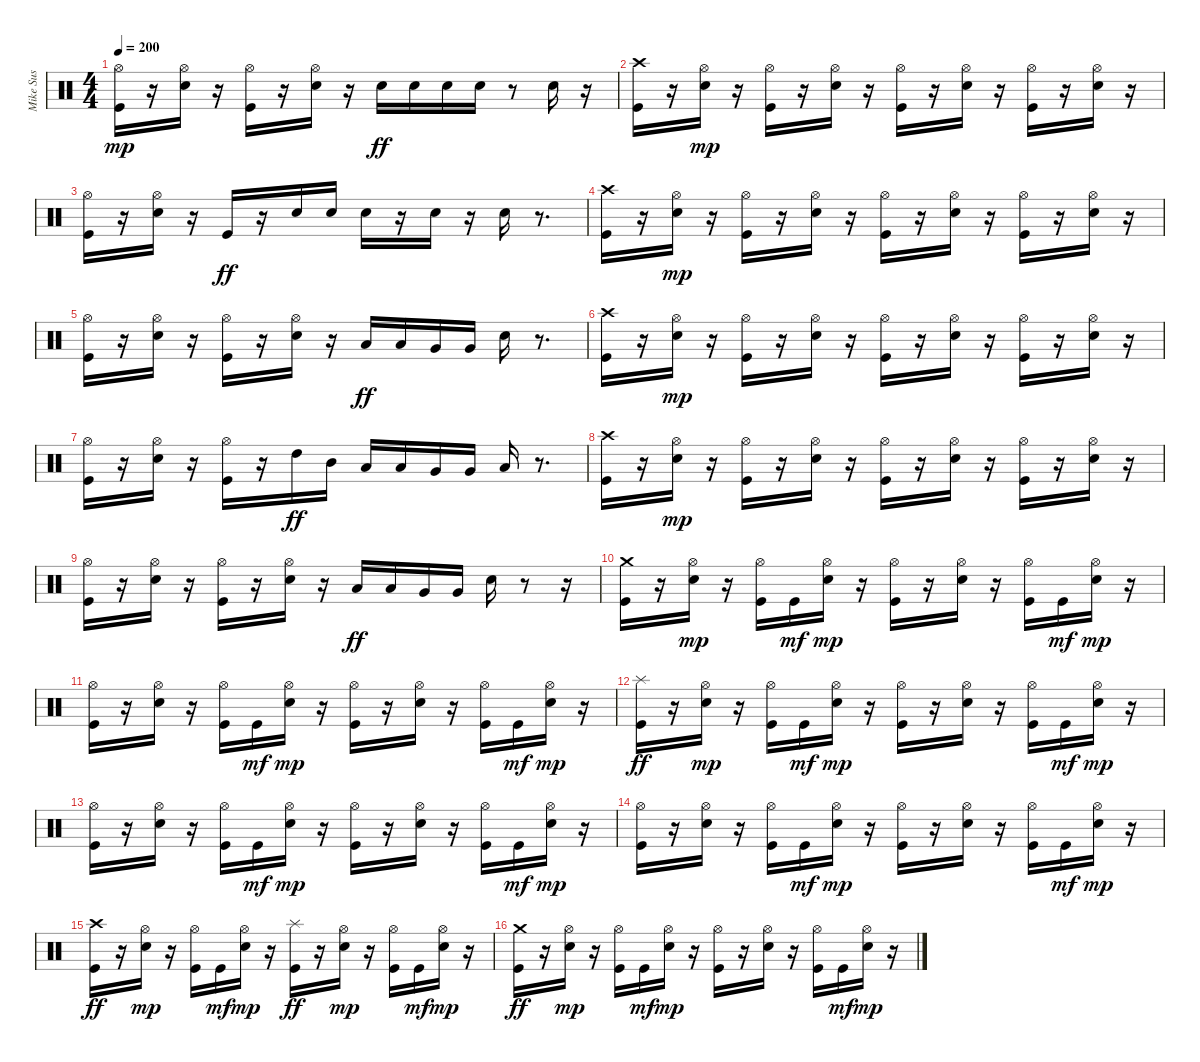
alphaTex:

\track ("Mike Sus" "Mike Sus") {instrument percussion}
\staff {score}
\articulation defaults
\ts (4 4)
\tempo 200
\clef neutral
\ks c
("Kick (hit)" "Hi-Hat (open)").16{dy mp} r.16 ("Snare (hit) 2" "Hi-Hat (open)").16 r.16 ("Kick (hit)" "Hi-Hat (open)").16 r.16 ("Snare (hit) 2" "Hi-Hat (open)").16 r.16 "Snare (hit) 2".16{dy ff} "Snare (hit) 2".16 "Snare (hit) 2".16 "Snare (hit) 2".16 r.8 "Snare (hit) 2".16 r.16 |
("Kick (hit)" "Crash high (hit)").16 r.16 ("Snare (hit) 2" "Hi-Hat (open)").16{dy mp} r.16 ("Kick (hit)" "Hi-Hat (open)").16 r.16 ("Snare (hit) 2" "Hi-Hat (open)").16 r.16 ("Kick (hit)" "Hi-Hat (open)").16 r.16 ("Snare (hit) 2" "Hi-Hat (open)").16 r.16 ("Kick (hit)" "Hi-Hat (open)").16 r.16 ("Snare (hit) 2" "Hi-Hat (open)").16 r.16 |
("Kick (hit)" "Hi-Hat (open)").16 r.16 ("Snare (hit) 2" "Hi-Hat (open)").16 r.16 "Kick (hit)".16{dy ff} r.16 "Snare (hit) 2".16 "Snare (hit) 2".16 "Snare (hit) 2".16 r.16 "Snare (hit) 2".16 r.16 "Snare (hit) 2".16 r.8{d} |
("Kick (hit)" "Crash high (hit)").16 r.16 ("Snare (hit) 2" "Hi-Hat (open)").16{dy mp} r.16 ("Kick (hit)" "Hi-Hat (open)").16 r.16 ("Snare (hit) 2" "Hi-Hat (open)").16 r.16 ("Kick (hit)" "Hi-Hat (open)").16 r.16 ("Snare (hit) 2" "Hi-Hat (open)").16 r.16 ("Kick (hit)" "Hi-Hat (open)").16 r.16 ("Snare (hit) 2" "Hi-Hat (open)").16 r.16 |
("Kick (hit)" "Hi-Hat (open)").16 r.16 ("Snare (hit) 2" "Hi-Hat (open)").16 r.16 ("Kick (hit)" "Hi-Hat (open)").16 r.16 ("Snare (hit) 2" "Hi-Hat (open)").16 r.16 "Low Tom (hit)".16{dy ff} "Low Tom (hit)".16 "Very Low Tom (hit)".16 "Very Low Tom (hit)".16 "Snare (hit) 2".16 r.8{d} |
("Kick (hit)" "Crash high (hit)").16 r.16 ("Snare (hit) 2" "Hi-Hat (open)").16{dy mp} r.16 ("Kick (hit)" "Hi-Hat (open)").16 r.16 ("Snare (hit) 2" "Hi-Hat (open)").16 r.16 ("Kick (hit)" "Hi-Hat (open)").16 r.16 ("Snare (hit) 2" "Hi-Hat (open)").16 r.16 ("Kick (hit)" "Hi-Hat (open)").16 r.16 ("Snare (hit) 2" "Hi-Hat (open)").16 r.16 |
("Kick (hit)" "Hi-Hat (open)").16 r.16 ("Snare (hit) 2" "Hi-Hat (open)").16 r.16 ("Kick (hit)" "Hi-Hat (open)").16 r.16 "High Tom (hit)".16{dy ff} "Mid Tom (hit)".16 "Low Tom (hit)".16 "Low Tom (hit)".16 "Very Low Tom (hit)".16 "Very Low Tom (hit)".16 "Low Floor Tom (hit)".16 r.8{d} |
("Kick (hit)" "Crash high (hit)").16 r.16 ("Snare (hit) 2" "Hi-Hat (open)").16{dy mp} r.16 ("Kick (hit)" "Hi-Hat (open)").16 r.16 ("Snare (hit) 2" "Hi-Hat (open)").16 r.16 ("Kick (hit)" "Hi-Hat (open)").16 r.16 ("Snare (hit) 2" "Hi-Hat (open)").16 r.16 ("Kick (hit)" "Hi-Hat (open)").16 r.16 ("Snare (hit) 2" "Hi-Hat (open)").16 r.16 |
("Kick (hit)" "Hi-Hat (open)").16 r.16 ("Snare (hit) 2" "Hi-Hat (open)").16 r.16 ("Kick (hit)" "Hi-Hat (open)").16 r.16 ("Snare (hit) 2" "Hi-Hat (open)").16 r.16 "Low Tom (hit)".16{dy ff} "Low Tom (hit)".16 "Very Low Tom (hit)".16 "Very Low Tom (hit)".16 "Snare (hit) 2".16 r.8 r.16 |
("Kick (hit)" "Crash medium (hit)").16 r.16 ("Snare (hit) 2" "Hi-Hat (open)").16{dy mp} r.16 ("Kick (hit)" "Hi-Hat (open)").16 "Kick (hit)".16{dy mf} ("Snare (hit) 2" "Hi-Hat (open)").16{dy mp} r.16 ("Kick (hit)" "Hi-Hat (open)").16 r.16 ("Snare (hit) 2" "Hi-Hat (open)").16 r.16 ("Kick (hit)" "Hi-Hat (open)").16 "Kick (hit)".16{dy mf} ("Snare (hit) 2" "Hi-Hat (open)").16{dy mp} r.16 |
("Kick (hit)" "Hi-Hat (open)").16 r.16 ("Snare (hit) 2" "Hi-Hat (open)").16 r.16 ("Kick (hit)" "Hi-Hat (open)").16 "Kick (hit)".16{dy mf} ("Snare (hit) 2" "Hi-Hat (open)").16{dy mp} r.16 ("Kick (hit)" "Hi-Hat (open)").16 r.16 ("Snare (hit) 2" "Hi-Hat (open)").16 r.16 ("Kick (hit)" "Hi-Hat (open)").16 "Kick (hit)".16{dy mf} ("Snare (hit) 2" "Hi-Hat (open)").16{dy mp} r.16 |
("Kick (hit)" "Splash (hit)").16{dy ff} r.16 ("Snare (hit) 2" "Hi-Hat (open)").16{dy mp} r.16 ("Kick (hit)" "Hi-Hat (open)").16 "Kick (hit)".16{dy mf} ("Snare (hit) 2" "Hi-Hat (open)").16{dy mp} r.16 ("Kick (hit)" "Hi-Hat (open)").16 r.16 ("Snare (hit) 2" "Hi-Hat (open)").16 r.16 ("Kick (hit)" "Hi-Hat (open)").16 "Kick (hit)".16{dy mf} ("Snare (hit) 2" "Hi-Hat (open)").16{dy mp} r.16 |
("Kick (hit)" "Hi-Hat (open)").16 r.16 ("Snare (hit) 2" "Hi-Hat (open)").16 r.16 ("Kick (hit)" "Hi-Hat (open)").16 "Kick (hit)".16{dy mf} ("Snare (hit) 2" "Hi-Hat (open)").16{dy mp} r.16 ("Kick (hit)" "Hi-Hat (open)").16 r.16 ("Snare (hit) 2" "Hi-Hat (open)").16 r.16 ("Kick (hit)" "Hi-Hat (open)").16 "Kick (hit)".16{dy mf} ("Snare (hit) 2" "Hi-Hat (open)").16{dy mp} r.16 |
("Kick (hit)" "Hi-Hat (open)").16 r.16 ("Snare (hit) 2" "Hi-Hat (open)").16 r.16 ("Kick (hit)" "Hi-Hat (open)").16 "Kick (hit)".16{dy mf} ("Snare (hit) 2" "Hi-Hat (open)").16{dy mp} r.16 ("Kick (hit)" "Hi-Hat (open)").16 r.16 ("Snare (hit) 2" "Hi-Hat (open)").16 r.16 ("Kick (hit)" "Hi-Hat (open)").16 "Kick (hit)".16{dy mf} ("Snare (hit) 2" "Hi-Hat (open)").16{dy mp} r.16 |
("Kick (hit)" "Crash high (hit)").16{dy ff} r.16 ("Snare (hit) 2" "Hi-Hat (open)").16{dy mp} r.16 ("Kick (hit)" "Hi-Hat (open)").16 "Kick (hit)".16{dy mf} ("Snare (hit) 2" "Hi-Hat (open)").16{dy mp} r.16 ("Kick (hit)" "Splash (hit)").16{dy ff} r.16 ("Snare (hit) 2" "Hi-Hat (open)").16{dy mp} r.16 ("Kick (hit)" "Hi-Hat (open)").16 "Kick (hit)".16{dy mf} ("Snare (hit) 2" "Hi-Hat (open)").16{dy mp} r.16 |
("Kick (hit)" "Crash medium (hit)").16{dy ff} r.16 ("Snare (hit) 2" "Hi-Hat (open)").16{dy mp} r.16 ("Kick (hit)" "Hi-Hat (open)").16 "Kick (hit)".16{dy mf} ("Snare (hit) 2" "Hi-Hat (open)").16{dy mp} r.16 ("Kick (hit)" "Hi-Hat (open)").16 r.16 ("Snare (hit) 2" "Hi-Hat (open)").16 r.16 ("Kick (hit)" "Hi-Hat (open)").16 "Kick (hit)".16{dy mf} ("Snare (hit) 2" "Hi-Hat (open)").16{dy mp} r.16
